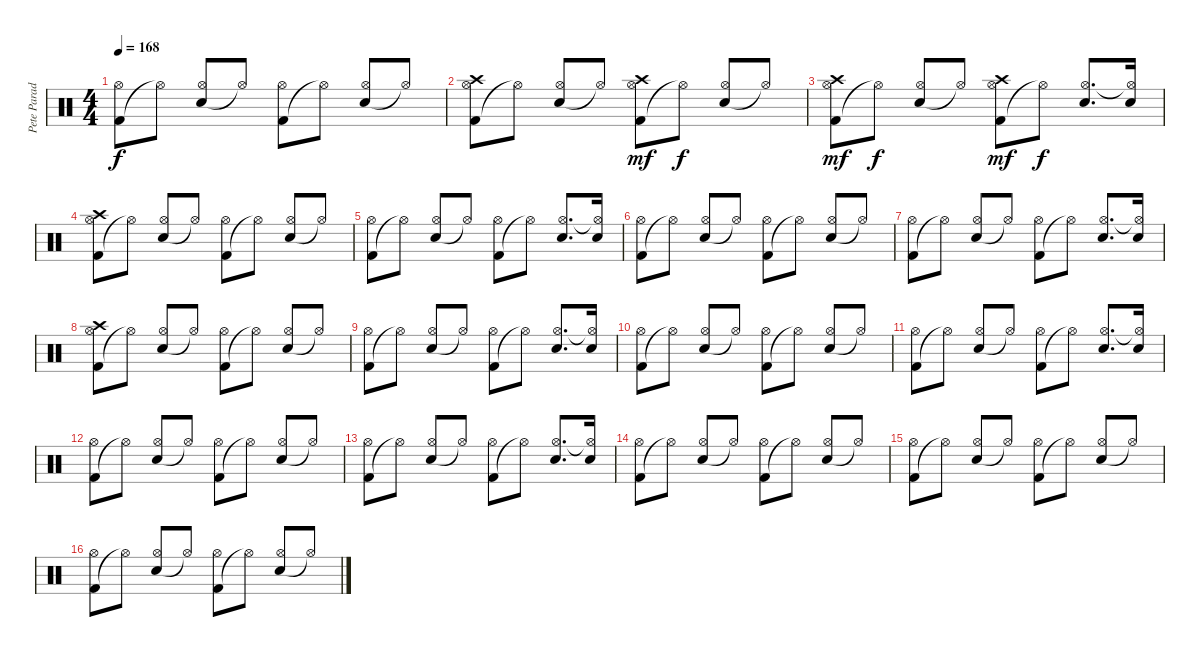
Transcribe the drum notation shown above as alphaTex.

\track ("Pete Parada" "Pete Parad") {instrument percussion}
\staff {score}
\articulation defaults
\ts (4 4)
\tempo 168
\clef neutral
\ks c
("Kick (hit) 2" "Hi-Hat (open)").8{dy f} "Hi-Hat (open)"{t}.8 ("Electric Snare (hit)" "Hi-Hat (open)").8{beam Up} "Hi-Hat (open)"{t}.8{beam Up} ("Kick (hit) 2" "Hi-Hat (open)").8 "Hi-Hat (open)"{t}.8 ("Electric Snare (hit)" "Hi-Hat (open)").8{beam Up} "Hi-Hat (open)"{t}.8{beam Up} |
("Kick (hit) 2" "Hi-Hat (open)" "Crash high (hit)").8 "Hi-Hat (open)"{t}.8 ("Electric Snare (hit)" "Hi-Hat (open)").8{beam Up} "Hi-Hat (open)"{t}.8{beam Up} ("Kick (hit) 2" "Hi-Hat (open)" "Crash high (hit)").8{dy mf} "Hi-Hat (open)"{t}.8{dy f} ("Electric Snare (hit)" "Hi-Hat (open)").8{beam Up} "Hi-Hat (open)"{t}.8{beam Up} |
("Kick (hit) 2" "Hi-Hat (open)" "Crash high (hit)").8{dy mf} "Hi-Hat (open)"{t}.8{dy f} ("Electric Snare (hit)" "Hi-Hat (open)").8{beam Up} "Hi-Hat (open)"{t}.8{beam Up} ("Kick (hit) 2" "Hi-Hat (open)" "Crash high (hit)").8{dy mf} "Hi-Hat (open)"{t}.8{dy f} ("Electric Snare (hit)" "Hi-Hat (open)").8{d beam Up} ("Electric Snare (hit)" "Hi-Hat (open)"{t}).16{beam Up} |
("Kick (hit) 2" "Hi-Hat (open)" "Crash high (hit)").8 "Hi-Hat (open)"{t}.8 ("Electric Snare (hit)" "Hi-Hat (open)").8{beam Up} "Hi-Hat (open)"{t}.8{beam Up} ("Kick (hit) 2" "Hi-Hat (open)").8 "Hi-Hat (open)"{t}.8 ("Electric Snare (hit)" "Hi-Hat (open)").8{beam Up} "Hi-Hat (open)"{t}.8{beam Up} |
("Kick (hit) 2" "Hi-Hat (open)").8 "Hi-Hat (open)"{t}.8 ("Electric Snare (hit)" "Hi-Hat (open)").8{beam Up} "Hi-Hat (open)"{t}.8{beam Up} ("Kick (hit) 2" "Hi-Hat (open)").8 "Hi-Hat (open)"{t}.8 ("Electric Snare (hit)" "Hi-Hat (open)").8{d beam Up} ("Electric Snare (hit)" "Hi-Hat (open)"{t}).16{beam Up} |
("Kick (hit) 2" "Hi-Hat (open)").8 "Hi-Hat (open)"{t}.8 ("Electric Snare (hit)" "Hi-Hat (open)").8{beam Up} "Hi-Hat (open)"{t}.8{beam Up} ("Kick (hit) 2" "Hi-Hat (open)").8 "Hi-Hat (open)"{t}.8 ("Electric Snare (hit)" "Hi-Hat (open)").8{beam Up} "Hi-Hat (open)"{t}.8{beam Up} |
("Kick (hit) 2" "Hi-Hat (open)").8 "Hi-Hat (open)"{t}.8 ("Electric Snare (hit)" "Hi-Hat (open)").8{beam Up} "Hi-Hat (open)"{t}.8{beam Up} ("Kick (hit) 2" "Hi-Hat (open)").8 "Hi-Hat (open)"{t}.8 ("Electric Snare (hit)" "Hi-Hat (open)").8{d beam Up} ("Electric Snare (hit)" "Hi-Hat (open)"{t}).16{beam Up} |
("Kick (hit) 2" "Hi-Hat (open)" "Crash high (hit)").8 "Hi-Hat (open)"{t}.8 ("Electric Snare (hit)" "Hi-Hat (open)").8{beam Up} "Hi-Hat (open)"{t}.8{beam Up} ("Kick (hit) 2" "Hi-Hat (open)").8 "Hi-Hat (open)"{t}.8 ("Electric Snare (hit)" "Hi-Hat (open)").8{beam Up} "Hi-Hat (open)"{t}.8{beam Up} |
("Kick (hit) 2" "Hi-Hat (open)").8 "Hi-Hat (open)"{t}.8 ("Electric Snare (hit)" "Hi-Hat (open)").8{beam Up} "Hi-Hat (open)"{t}.8{beam Up} ("Kick (hit) 2" "Hi-Hat (open)").8 "Hi-Hat (open)"{t}.8 ("Electric Snare (hit)" "Hi-Hat (open)").8{d beam Up} ("Electric Snare (hit)" "Hi-Hat (open)"{t}).16{beam Up} |
("Kick (hit) 2" "Hi-Hat (open)").8 "Hi-Hat (open)"{t}.8 ("Electric Snare (hit)" "Hi-Hat (open)").8{beam Up} "Hi-Hat (open)"{t}.8{beam Up} ("Kick (hit) 2" "Hi-Hat (open)").8 "Hi-Hat (open)"{t}.8 ("Electric Snare (hit)" "Hi-Hat (open)").8{beam Up} "Hi-Hat (open)"{t}.8{beam Up} |
("Kick (hit) 2" "Hi-Hat (open)").8 "Hi-Hat (open)"{t}.8 ("Electric Snare (hit)" "Hi-Hat (open)").8{beam Up} "Hi-Hat (open)"{t}.8{beam Up} ("Kick (hit) 2" "Hi-Hat (open)").8 "Hi-Hat (open)"{t}.8 ("Electric Snare (hit)" "Hi-Hat (open)").8{d beam Up} ("Electric Snare (hit)" "Hi-Hat (open)"{t}).16{beam Up} |
("Kick (hit) 2" "Hi-Hat (open)").8 "Hi-Hat (open)"{t}.8 ("Electric Snare (hit)" "Hi-Hat (open)").8{beam Up} "Hi-Hat (open)"{t}.8{beam Up} ("Kick (hit) 2" "Hi-Hat (open)").8 "Hi-Hat (open)"{t}.8 ("Electric Snare (hit)" "Hi-Hat (open)").8{beam Up} "Hi-Hat (open)"{t}.8{beam Up} |
("Kick (hit) 2" "Hi-Hat (open)").8 "Hi-Hat (open)"{t}.8 ("Electric Snare (hit)" "Hi-Hat (open)").8{beam Up} "Hi-Hat (open)"{t}.8{beam Up} ("Kick (hit) 2" "Hi-Hat (open)").8 "Hi-Hat (open)"{t}.8 ("Electric Snare (hit)" "Hi-Hat (open)").8{d beam Up} ("Electric Snare (hit)" "Hi-Hat (open)"{t}).16{beam Up} |
("Kick (hit) 2" "Hi-Hat (open)").8 "Hi-Hat (open)"{t}.8 ("Electric Snare (hit)" "Hi-Hat (open)").8{beam Up} "Hi-Hat (open)"{t}.8{beam Up} ("Kick (hit) 2" "Hi-Hat (open)").8 "Hi-Hat (open)"{t}.8 ("Electric Snare (hit)" "Hi-Hat (open)").8{beam Up} "Hi-Hat (open)"{t}.8{beam Up} |
("Kick (hit) 2" "Hi-Hat (open)").8 "Hi-Hat (open)"{t}.8 ("Electric Snare (hit)" "Hi-Hat (open)").8{beam Up} "Hi-Hat (open)"{t}.8{beam Up} ("Kick (hit) 2" "Hi-Hat (open)").8 "Hi-Hat (open)"{t}.8 ("Electric Snare (hit)" "Hi-Hat (open)").8{beam Up} "Hi-Hat (open)"{t}.8{beam Up} |
("Kick (hit) 2" "Hi-Hat (open)").8 "Hi-Hat (open)"{t}.8 ("Electric Snare (hit)" "Hi-Hat (open)").8{beam Up} "Hi-Hat (open)"{t}.8{beam Up} ("Kick (hit) 2" "Hi-Hat (open)").8 "Hi-Hat (open)"{t}.8 ("Electric Snare (hit)" "Hi-Hat (open)").8{beam Up} "Hi-Hat (open)"{t}.8{beam Up}
